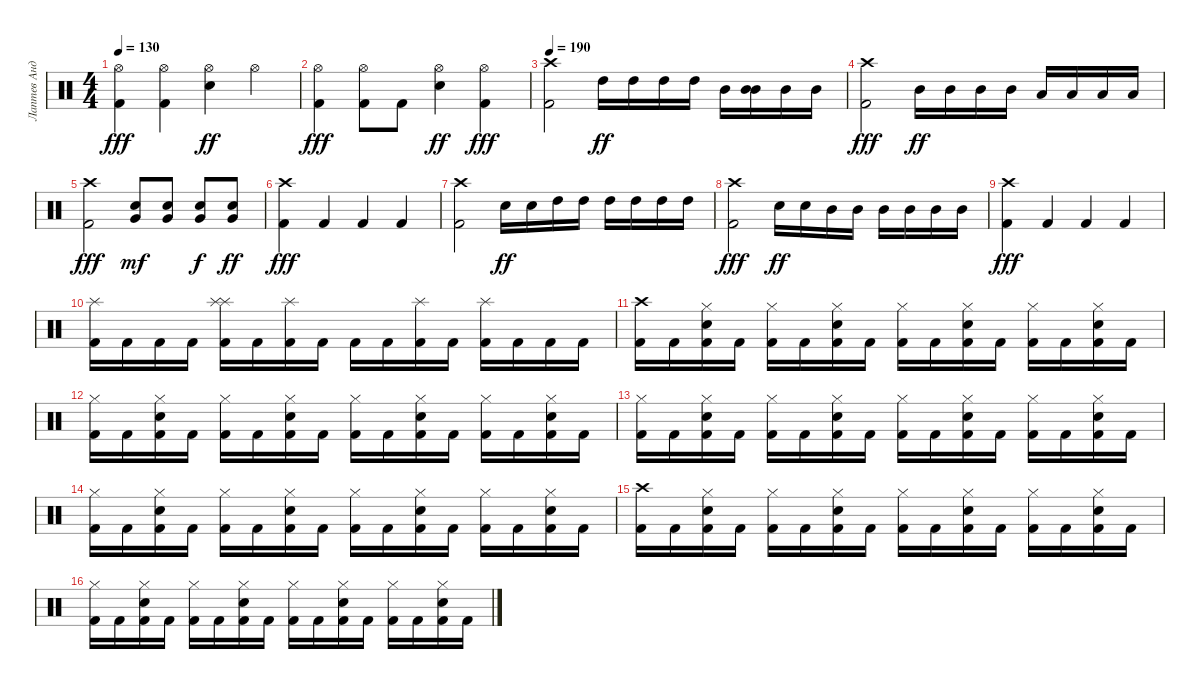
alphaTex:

\track ("Лаптев Андрей" "Лаптев Анд") {instrument percussion}
\staff {score}
\articulation defaults
\ts (4 4)
\tempo 130
\clef neutral
\ks c
("Hi-Hat (open)" "Kick (hit) 2").4{dy fff} ("Hi-Hat (open)" "Kick (hit) 2").4 ("Electric Snare (hit)" "Hi-Hat (open)").4{dy ff} "Hi-Hat (open)".4 |
("Hi-Hat (open)" "Kick (hit) 2").4{dy fff} ("Hi-Hat (open)" "Kick (hit) 2").8 "Kick (hit) 2".8 ("Electric Snare (hit)" "Hi-Hat (open)").4{dy ff} ("Hi-Hat (open)" "Kick (hit) 2").4{dy fff} |
\tempo 190
("Crash high (hit)" "Kick (hit) 2").2 "High Tom (hit)".16{dy ff} "High Tom (hit)".16 "High Tom (hit)".16 "High Tom (hit)".16 "Mid Tom (hit)".16 ("Mid Tom (hit)" "Mid Tom (hit)").16 "Mid Tom (hit)".16 "Mid Tom (hit)".16 |
("Crash high (hit)" "Kick (hit) 2").2{dy fff} "Mid Tom (hit)".16{dy ff} "Mid Tom (hit)".16 "Mid Tom (hit)".16 "Mid Tom (hit)".16 "Low Tom (hit)".16 "Low Tom (hit)".16 "Low Tom (hit)".16 "Low Tom (hit)".16 |
("Crash high (hit)" "Kick (hit) 2").2{dy fff} ("Electric Snare (hit)" "Very Low Tom (hit)").8{dy mf} ("Electric Snare (hit)" "Very Low Tom (hit)").8 ("Electric Snare (hit)" "Very Low Tom (hit)").8{dy f} ("Very Low Tom (hit)" "Electric Snare (hit)").8{dy ff} |
("Crash high (hit)" "Kick (hit) 2").4{dy fff} "Kick (hit) 2".4 "Kick (hit) 2".4 "Kick (hit) 2".4 |
("Crash high (hit)" "Kick (hit) 2").2 "Electric Snare (hit)".16{dy ff} "Electric Snare (hit)".16 "High Tom (hit)".16 "High Tom (hit)".16 "High Tom (hit)".16 "High Tom (hit)".16 "High Tom (hit)".16 "High Tom (hit)".16 |
("Crash high (hit)" "Kick (hit) 2").2{dy fff} "Electric Snare (hit)".16{dy ff} "Electric Snare (hit)".16 "Mid Tom (hit)".16 "Mid Tom (hit)".16 "Mid Tom (hit)".16 "Mid Tom (hit)".16 "Mid Tom (hit)".16 "Mid Tom (hit)".16 |
("Crash high (hit)" "Kick (hit) 2").4{dy fff} "Kick (hit) 2".4 "Kick (hit) 2".4 "Kick (hit) 2".4 |
("Splash (hit)" "Kick (hit) 2").16 "Kick (hit) 2".16 "Kick (hit) 2".16 "Kick (hit) 2".16 ("Splash (hit)" "Splash (hit)" "Kick (hit) 2").16 "Kick (hit) 2".16 ("Splash (hit)" "Kick (hit) 2").16 "Kick (hit) 2".16 "Kick (hit) 2".16 "Kick (hit) 2".16 ("Splash (hit)" "Kick (hit) 2").16 "Kick (hit) 2".16 ("Splash (hit)" "Kick (hit) 2").16 "Kick (hit) 2".16 "Kick (hit) 2".16 "Kick (hit) 2".16 |
("Crash high (hit)" "Kick (hit) 2").16 "Kick (hit) 2".16 ("Electric Snare (hit)" "Hi-Hat (closed)" "Kick (hit) 2").16 "Kick (hit) 2".16 ("Hi-Hat (closed)" "Kick (hit) 2").16 "Kick (hit) 2".16 ("Hi-Hat (closed)" "Electric Snare (hit)" "Kick (hit) 2").16 "Kick (hit) 2".16 ("Hi-Hat (closed)" "Kick (hit) 2").16 "Kick (hit) 2".16 ("Hi-Hat (closed)" "Electric Snare (hit)" "Kick (hit) 2").16 "Kick (hit) 2".16 ("Hi-Hat (closed)" "Kick (hit) 2").16 "Kick (hit) 2".16 ("Hi-Hat (closed)" "Electric Snare (hit)" "Kick (hit) 2").16 "Kick (hit) 2".16 |
("Hi-Hat (closed)" "Kick (hit) 2").16 "Kick (hit) 2".16 ("Electric Snare (hit)" "Hi-Hat (closed)" "Kick (hit) 2").16 "Kick (hit) 2".16 ("Hi-Hat (closed)" "Kick (hit) 2").16 "Kick (hit) 2".16 ("Hi-Hat (closed)" "Electric Snare (hit)" "Kick (hit) 2").16 "Kick (hit) 2".16 ("Hi-Hat (closed)" "Kick (hit) 2").16 "Kick (hit) 2".16 ("Hi-Hat (closed)" "Electric Snare (hit)" "Kick (hit) 2").16 "Kick (hit) 2".16 ("Hi-Hat (closed)" "Kick (hit) 2").16 "Kick (hit) 2".16 ("Hi-Hat (closed)" "Electric Snare (hit)" "Kick (hit) 2").16 "Kick (hit) 2".16 |
("Hi-Hat (closed)" "Kick (hit) 2").16 "Kick (hit) 2".16 ("Electric Snare (hit)" "Hi-Hat (closed)" "Kick (hit) 2").16 "Kick (hit) 2".16 ("Hi-Hat (closed)" "Kick (hit) 2").16 "Kick (hit) 2".16 ("Hi-Hat (closed)" "Electric Snare (hit)" "Kick (hit) 2").16 "Kick (hit) 2".16 ("Hi-Hat (closed)" "Kick (hit) 2").16 "Kick (hit) 2".16 ("Hi-Hat (closed)" "Electric Snare (hit)" "Kick (hit) 2").16 "Kick (hit) 2".16 ("Hi-Hat (closed)" "Kick (hit) 2").16 "Kick (hit) 2".16 ("Hi-Hat (closed)" "Electric Snare (hit)" "Kick (hit) 2").16 "Kick (hit) 2".16 |
("Hi-Hat (closed)" "Kick (hit) 2").16 "Kick (hit) 2".16 ("Electric Snare (hit)" "Hi-Hat (closed)" "Kick (hit) 2").16 "Kick (hit) 2".16 ("Hi-Hat (closed)" "Kick (hit) 2").16 "Kick (hit) 2".16 ("Hi-Hat (closed)" "Electric Snare (hit)" "Kick (hit) 2").16 "Kick (hit) 2".16 ("Hi-Hat (closed)" "Kick (hit) 2").16 "Kick (hit) 2".16 ("Hi-Hat (closed)" "Electric Snare (hit)" "Kick (hit) 2").16 "Kick (hit) 2".16 ("Hi-Hat (closed)" "Kick (hit) 2").16 "Kick (hit) 2".16 ("Hi-Hat (closed)" "Electric Snare (hit)" "Kick (hit) 2").16 "Kick (hit) 2".16 |
("Crash high (hit)" "Kick (hit) 2").16 "Kick (hit) 2".16 ("Electric Snare (hit)" "Hi-Hat (closed)" "Kick (hit) 2").16 "Kick (hit) 2".16 ("Hi-Hat (closed)" "Kick (hit) 2").16 "Kick (hit) 2".16 ("Hi-Hat (closed)" "Electric Snare (hit)" "Kick (hit) 2").16 "Kick (hit) 2".16 ("Hi-Hat (closed)" "Kick (hit) 2").16 "Kick (hit) 2".16 ("Hi-Hat (closed)" "Electric Snare (hit)" "Kick (hit) 2").16 "Kick (hit) 2".16 ("Hi-Hat (closed)" "Kick (hit) 2").16 "Kick (hit) 2".16 ("Hi-Hat (closed)" "Electric Snare (hit)" "Kick (hit) 2").16 "Kick (hit) 2".16 |
("Hi-Hat (closed)" "Kick (hit) 2").16 "Kick (hit) 2".16 ("Electric Snare (hit)" "Hi-Hat (closed)" "Kick (hit) 2").16 "Kick (hit) 2".16 ("Hi-Hat (closed)" "Kick (hit) 2").16 "Kick (hit) 2".16 ("Hi-Hat (closed)" "Electric Snare (hit)" "Kick (hit) 2").16 "Kick (hit) 2".16 ("Hi-Hat (closed)" "Kick (hit) 2").16 "Kick (hit) 2".16 ("Hi-Hat (closed)" "Electric Snare (hit)" "Kick (hit) 2").16 "Kick (hit) 2".16 ("Hi-Hat (closed)" "Kick (hit) 2").16 "Kick (hit) 2".16 ("Hi-Hat (closed)" "Electric Snare (hit)" "Kick (hit) 2").16 "Kick (hit) 2".16
